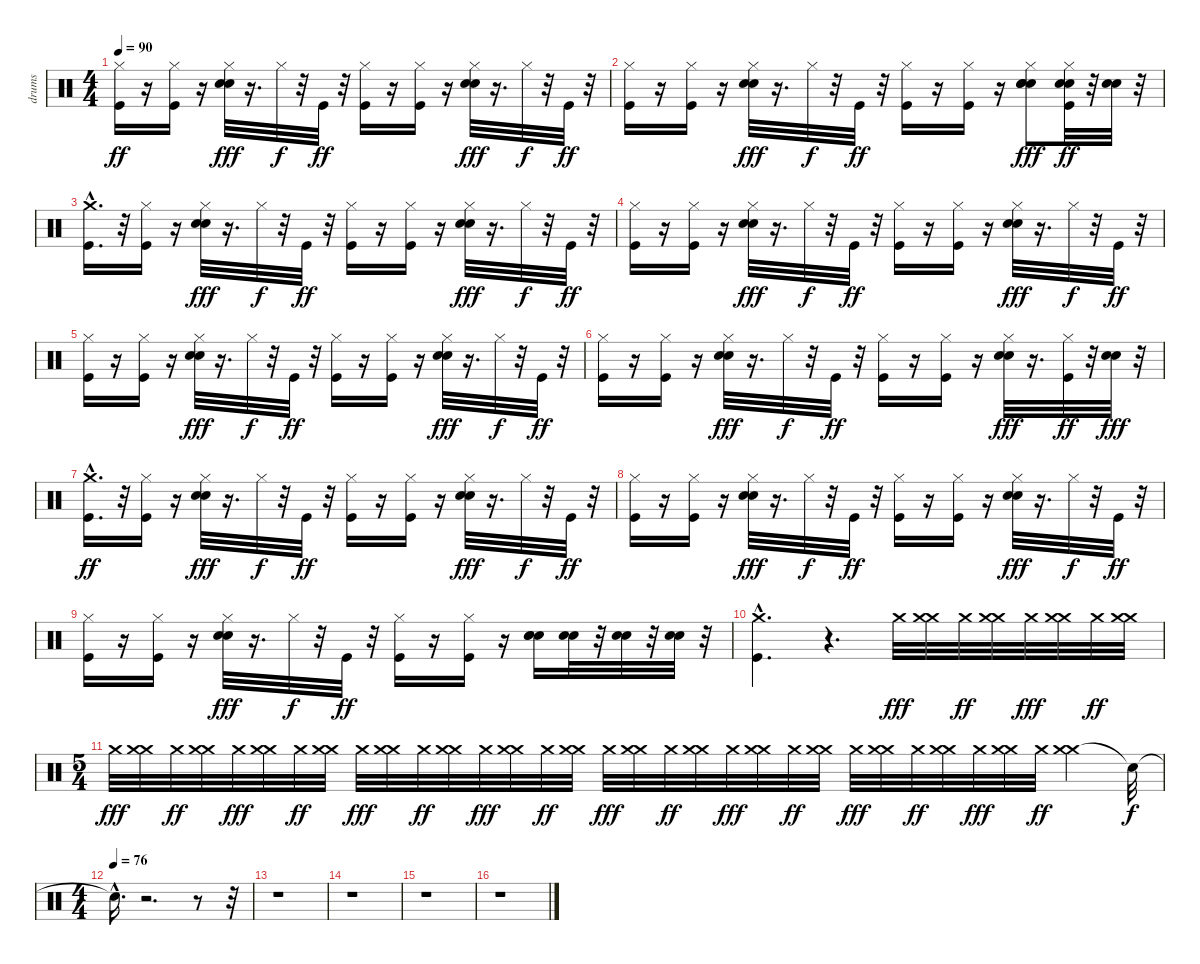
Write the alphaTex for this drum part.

\track ("drums" "drums") {instrument percussion}
\staff {score}
\articulation defaults
\ts (4 4)
\tempo 90
\clef neutral
\ks c
("Kick (hit)" "Hi-Hat (closed)").16{dy ff} r.16 ("Hi-Hat (closed)" "Kick (hit)").16 r.16 ("Hi-Hat (closed)" "Electric Snare (hit)" "Hand Clap (hit)").32{dy fff} r.16{d} "Hi-Hat (closed)".32{dy f} r.32 "Kick (hit)".32{dy ff} r.32 ("Hi-Hat (closed)" "Kick (hit)").16 r.16 ("Hi-Hat (closed)" "Kick (hit)").16 r.16 ("Hi-Hat (closed)" "Electric Snare (hit)" "Hand Clap (hit)").32{dy fff} r.16{d} "Hi-Hat (closed)".32{dy f} r.32 "Kick (hit)".32{dy ff} r.32 |
("Kick (hit)" "Hi-Hat (closed)").16 r.16 ("Hi-Hat (closed)" "Kick (hit)").16 r.16 ("Hi-Hat (closed)" "Electric Snare (hit)" "Hand Clap (hit)").32{dy fff} r.16{d} "Hi-Hat (closed)".32{dy f} r.32 "Kick (hit)".32{dy ff} r.32 ("Hi-Hat (closed)" "Kick (hit)").16 r.16 ("Hi-Hat (closed)" "Kick (hit)").16 r.16 ("Electric Snare (hit)" "Hi-Hat (closed)" "Hand Clap (hit)" "Electric Snare (hit)").8{dy fff} ("Hi-Hat (closed)" "Kick (hit)" "Hand Clap (hit)" "Electric Snare (hit)").32{dy ff} r.32 ("Hand Clap (hit)" "Electric Snare (hit)").32 r.32 |
("Crash medium (hit)"{hac} "Kick (hit)").16{d} r.32 ("Hi-Hat (closed)" "Kick (hit)").16 r.16 ("Hi-Hat (closed)" "Electric Snare (hit)" "Hand Clap (hit)").32{dy fff} r.16{d} "Hi-Hat (closed)".32{dy f} r.32 "Kick (hit)".32{dy ff} r.32 ("Hi-Hat (closed)" "Kick (hit)").16 r.16 ("Hi-Hat (closed)" "Kick (hit)").16 r.16 ("Hi-Hat (closed)" "Electric Snare (hit)" "Hand Clap (hit)").32{dy fff} r.16{d} "Hi-Hat (closed)".32{dy f} r.32 "Kick (hit)".32{dy ff} r.32 |
("Kick (hit)" "Hi-Hat (closed)").16 r.16 ("Hi-Hat (closed)" "Kick (hit)").16 r.16 ("Hi-Hat (closed)" "Electric Snare (hit)" "Hand Clap (hit)").32{dy fff} r.16{d} "Hi-Hat (closed)".32{dy f} r.32 "Kick (hit)".32{dy ff} r.32 ("Hi-Hat (closed)" "Kick (hit)").16 r.16 ("Hi-Hat (closed)" "Kick (hit)").16 r.16 ("Hi-Hat (closed)" "Electric Snare (hit)" "Hand Clap (hit)").32{dy fff} r.16{d} "Hi-Hat (closed)".32{dy f} r.32 "Kick (hit)".32{dy ff} r.32 |
("Kick (hit)" "Hi-Hat (closed)").16 r.16 ("Hi-Hat (closed)" "Kick (hit)").16 r.16 ("Hi-Hat (closed)" "Electric Snare (hit)" "Hand Clap (hit)").32{dy fff} r.16{d} "Hi-Hat (closed)".32{dy f} r.32 "Kick (hit)".32{dy ff} r.32 ("Hi-Hat (closed)" "Kick (hit)").16 r.16 ("Hi-Hat (closed)" "Kick (hit)").16 r.16 ("Hi-Hat (closed)" "Electric Snare (hit)" "Hand Clap (hit)").32{dy fff} r.16{d} "Hi-Hat (closed)".32{dy f} r.32 "Kick (hit)".32{dy ff} r.32 |
("Kick (hit)" "Hi-Hat (closed)").16 r.16 ("Hi-Hat (closed)" "Kick (hit)").16 r.16 ("Hi-Hat (closed)" "Electric Snare (hit)" "Hand Clap (hit)").32{dy fff} r.16{d} "Hi-Hat (closed)".32{dy f} r.32 "Kick (hit)".32{dy ff} r.32 ("Hi-Hat (closed)" "Kick (hit)").16 r.16 ("Hi-Hat (closed)" "Kick (hit)").16 r.16 ("Hi-Hat (closed)" "Electric Snare (hit)" "Hand Clap (hit)").32{dy fff} r.16{d} ("Hi-Hat (closed)" "Kick (hit)").32{dy ff} r.32 ("Electric Snare (hit)" "Hand Clap (hit)").32{dy fff} r.32 |
("Crash medium (hit)"{hac} "Kick (hit)").16{d dy ff} r.32 ("Hi-Hat (closed)" "Kick (hit)").16 r.16 ("Hi-Hat (closed)" "Electric Snare (hit)" "Hand Clap (hit)").32{dy fff} r.16{d} "Hi-Hat (closed)".32{dy f} r.32 "Kick (hit)".32{dy ff} r.32 ("Hi-Hat (closed)" "Kick (hit)").16 r.16 ("Hi-Hat (closed)" "Kick (hit)").16 r.16 ("Hi-Hat (closed)" "Electric Snare (hit)" "Hand Clap (hit)").32{dy fff} r.16{d} "Hi-Hat (closed)".32{dy f} r.32 "Kick (hit)".32{dy ff} r.32 |
("Kick (hit)" "Hi-Hat (closed)").16 r.16 ("Hi-Hat (closed)" "Kick (hit)").16 r.16 ("Hi-Hat (closed)" "Electric Snare (hit)" "Hand Clap (hit)").32{dy fff} r.16{d} "Hi-Hat (closed)".32{dy f} r.32 "Kick (hit)".32{dy ff} r.32 ("Hi-Hat (closed)" "Kick (hit)").16 r.16 ("Hi-Hat (closed)" "Kick (hit)").16 r.16 ("Hi-Hat (closed)" "Electric Snare (hit)" "Hand Clap (hit)").32{dy fff} r.16{d} "Hi-Hat (closed)".32{dy f} r.32 "Kick (hit)".32{dy ff} r.32 |
("Kick (hit)" "Hi-Hat (closed)").16 r.16 ("Hi-Hat (closed)" "Kick (hit)").16 r.16 ("Hi-Hat (closed)" "Electric Snare (hit)" "Hand Clap (hit)").32{dy fff} r.16{d} "Hi-Hat (closed)".32{dy f} r.32 "Kick (hit)".32{dy ff} r.32 ("Hi-Hat (closed)" "Kick (hit)").16 r.16 ("Hi-Hat (closed)" "Kick (hit)").16 r.16 ("Electric Snare (hit)" "Electric Snare (hit)" "Hand Clap (hit)").16 ("Electric Snare (hit)" "Hand Clap (hit)").32 r.32 ("Electric Snare (hit)" "Hand Clap (hit)").32 r.32 ("Electric Snare (hit)" "Hand Clap (hit)").32 r.32 |
("Kick (hit)" "Crash medium (hit)"{hac}).4{d} r.4{d} "Crash medium (hit)".32{dy fff} ("Crash medium (hit)" "Crash medium (hit)").32 "Crash medium (hit)".32{dy ff} ("Crash medium (hit)" "Crash medium (hit)").32 "Crash medium (hit)".32{dy fff} ("Crash medium (hit)" "Crash medium (hit)").32 "Crash medium (hit)".32{dy ff} ("Crash medium (hit)" "Crash medium (hit)").32 |
\ts (5 4)
"Crash medium (hit)".32{dy fff} ("Crash medium (hit)" "Crash medium (hit)").32 "Crash medium (hit)".32{dy ff} ("Crash medium (hit)" "Crash medium (hit)").32 "Crash medium (hit)".32{dy fff} ("Crash medium (hit)" "Crash medium (hit)").32 "Crash medium (hit)".32{dy ff} ("Crash medium (hit)" "Crash medium (hit)").32 "Crash medium (hit)".32{dy fff} ("Crash medium (hit)" "Crash medium (hit)").32 "Crash medium (hit)".32{dy ff} ("Crash medium (hit)" "Crash medium (hit)").32 "Crash medium (hit)".32{dy fff} ("Crash medium (hit)" "Crash medium (hit)").32 "Crash medium (hit)".32{dy ff} ("Crash medium (hit)" "Crash medium (hit)").32 "Crash medium (hit)".32{dy fff} ("Crash medium (hit)" "Crash medium (hit)").32 "Crash medium (hit)".32{dy ff} ("Crash medium (hit)" "Crash medium (hit)").32 "Crash medium (hit)".32{dy fff} ("Crash medium (hit)" "Crash medium (hit)").32 "Crash medium (hit)".32{dy ff} ("Crash medium (hit)" "Crash medium (hit)").32 "Crash medium (hit)".32{dy fff} ("Crash medium (hit)" "Crash medium (hit)").32 "Crash medium (hit)".32{dy ff} ("Crash medium (hit)" "Crash medium (hit)").32 "Crash medium (hit)".32{dy fff} ("Crash medium (hit)" "Crash medium (hit)").32 "Crash medium (hit)".32{dy ff} ("Crash medium (hit)" "Crash medium (hit)").4 "Snare (hit)"{t}.32{dy f} |
\ts (4 4)
\tempo (76)
"Snare (hit)"{hac t}.16{d} r.2{d} r.8 r.32 |
r.1 |
r.1 |
r.1 |
r.1
